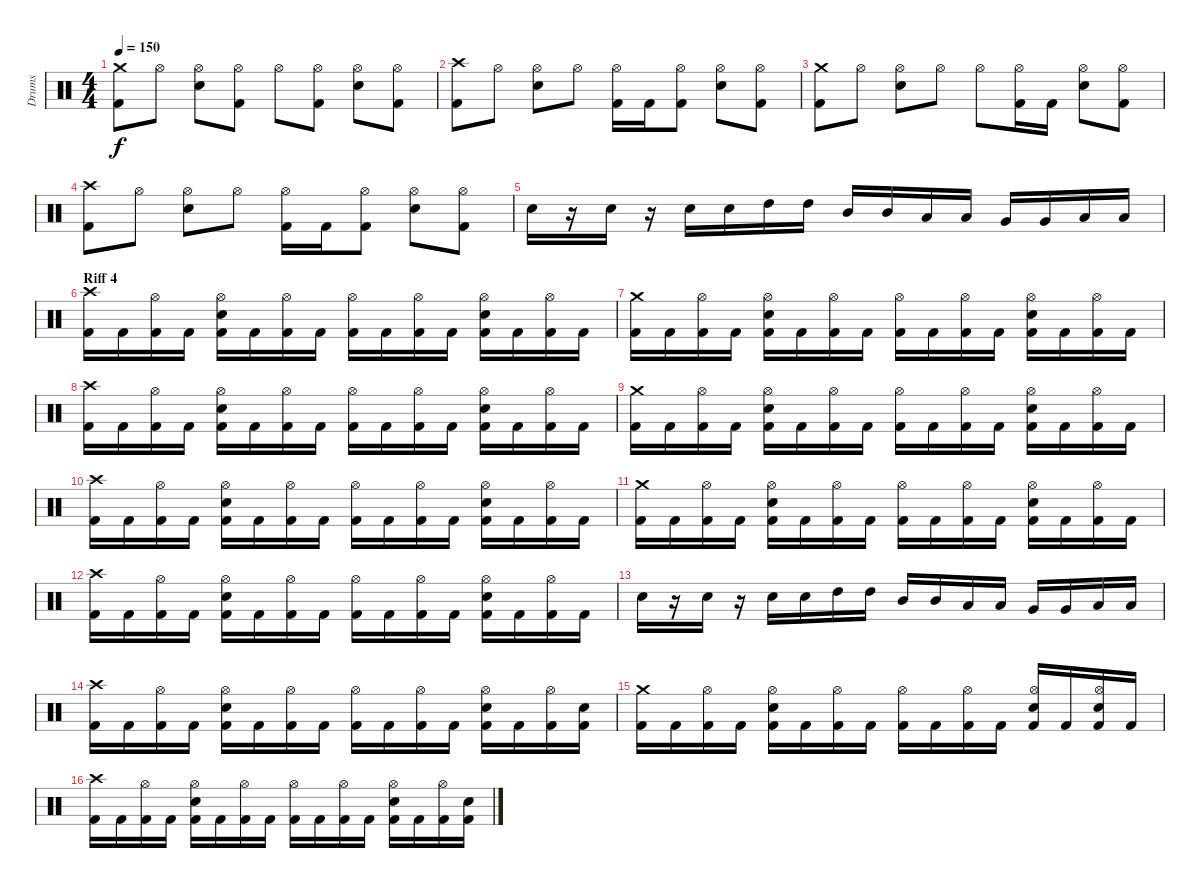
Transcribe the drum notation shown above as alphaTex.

\track ("Drums" "Drums") {instrument percussion}
\staff {score}
\articulation defaults
\ts (4 4)
\tempo 150
\clef neutral
\ks c
("Crash medium (hit)" "Kick (hit) 2").8{dy f} "Hi-Hat (open)".8 ("Hi-Hat (open)" "Electric Snare (hit)").8 ("Hi-Hat (open)" "Kick (hit) 2").8 "Hi-Hat (open)".8 ("Hi-Hat (open)" "Kick (hit) 2").8 ("Hi-Hat (open)" "Electric Snare (hit)").8 ("Hi-Hat (open)" "Kick (hit) 2").8 |
("Crash high (hit)" "Kick (hit) 2").8 "Hi-Hat (open)".8 ("Hi-Hat (open)" "Electric Snare (hit)").8 "Hi-Hat (open)".8 ("Hi-Hat (open)" "Kick (hit) 2").16 "Kick (hit) 2".16 ("Hi-Hat (open)" "Kick (hit) 2").8 ("Hi-Hat (open)" "Electric Snare (hit)").8 ("Hi-Hat (open)" "Kick (hit) 2").8 |
("Crash medium (hit)" "Kick (hit) 2").8 "Hi-Hat (open)".8 ("Hi-Hat (open)" "Electric Snare (hit)").8 "Hi-Hat (open)".8 "Hi-Hat (open)".8 ("Hi-Hat (open)" "Kick (hit) 2").16 "Kick (hit) 2".16 ("Hi-Hat (open)" "Electric Snare (hit)").8 ("Hi-Hat (open)" "Kick (hit) 2").8 |
("Crash high (hit)" "Kick (hit) 2").8 "Hi-Hat (open)".8 ("Hi-Hat (open)" "Electric Snare (hit)").8 "Hi-Hat (open)".8 ("Hi-Hat (open)" "Kick (hit) 2").16 "Kick (hit) 2".16 ("Hi-Hat (open)" "Kick (hit) 2").8 ("Hi-Hat (open)" "Electric Snare (hit)").8 ("Hi-Hat (open)" "Kick (hit) 2").8 |
"Electric Snare (hit)".16 r.16 "Electric Snare (hit)".16 r.16 "Electric Snare (hit)".16 "Electric Snare (hit)".16 "High Tom (hit)".16 "High Tom (hit)".16 "Mid Tom (hit)".16 "Mid Tom (hit)".16 "Low Tom (hit)".16 "Low Tom (hit)".16 "Very Low Tom (hit)".16 "Very Low Tom (hit)".16 "Low Floor Tom (hit)".16 "Low Floor Tom (hit)".16 |
\section ("" "Riff 4")
("Crash high (hit)" "Kick (hit) 2").16 "Kick (hit) 2".16 ("Hi-Hat (open)" "Kick (hit) 2").16 "Kick (hit) 2".16 ("Hi-Hat (open)" "Electric Snare (hit)" "Kick (hit) 2").16 "Kick (hit) 2".16 ("Hi-Hat (open)" "Kick (hit) 2").16 "Kick (hit) 2".16 ("Hi-Hat (open)" "Kick (hit) 2").16 "Kick (hit) 2".16 ("Hi-Hat (open)" "Kick (hit) 2").16 "Kick (hit) 2".16 ("Hi-Hat (open)" "Electric Snare (hit)" "Kick (hit) 2").16 "Kick (hit) 2".16 ("Hi-Hat (open)" "Kick (hit) 2").16 "Kick (hit) 2".16 |
("Crash medium (hit)" "Kick (hit) 2").16 "Kick (hit) 2".16 ("Hi-Hat (open)" "Kick (hit) 2").16 "Kick (hit) 2".16 ("Hi-Hat (open)" "Electric Snare (hit)" "Kick (hit) 2").16 "Kick (hit) 2".16 ("Hi-Hat (open)" "Kick (hit) 2").16 "Kick (hit) 2".16 ("Hi-Hat (open)" "Kick (hit) 2").16 "Kick (hit) 2".16 ("Hi-Hat (open)" "Kick (hit) 2").16 "Kick (hit) 2".16 ("Hi-Hat (open)" "Electric Snare (hit)" "Kick (hit) 2").16 "Kick (hit) 2".16 ("Hi-Hat (open)" "Kick (hit) 2").16 "Kick (hit) 2".16 |
("Crash high (hit)" "Kick (hit) 2").16 "Kick (hit) 2".16 ("Hi-Hat (open)" "Kick (hit) 2").16 "Kick (hit) 2".16 ("Hi-Hat (open)" "Electric Snare (hit)" "Kick (hit) 2").16 "Kick (hit) 2".16 ("Hi-Hat (open)" "Kick (hit) 2").16 "Kick (hit) 2".16 ("Hi-Hat (open)" "Kick (hit) 2").16 "Kick (hit) 2".16 ("Hi-Hat (open)" "Kick (hit) 2").16 "Kick (hit) 2".16 ("Hi-Hat (open)" "Electric Snare (hit)" "Kick (hit) 2").16 "Kick (hit) 2".16 ("Hi-Hat (open)" "Kick (hit) 2").16 "Kick (hit) 2".16 |
("Crash medium (hit)" "Kick (hit) 2").16 "Kick (hit) 2".16 ("Hi-Hat (open)" "Kick (hit) 2").16 "Kick (hit) 2".16 ("Hi-Hat (open)" "Electric Snare (hit)" "Kick (hit) 2").16 "Kick (hit) 2".16 ("Hi-Hat (open)" "Kick (hit) 2").16 "Kick (hit) 2".16 ("Hi-Hat (open)" "Kick (hit) 2").16 "Kick (hit) 2".16 ("Hi-Hat (open)" "Kick (hit) 2").16 "Kick (hit) 2".16 ("Hi-Hat (open)" "Electric Snare (hit)" "Kick (hit) 2").16 "Kick (hit) 2".16 ("Hi-Hat (open)" "Kick (hit) 2").16 "Kick (hit) 2".16 |
("Crash high (hit)" "Kick (hit) 2").16 "Kick (hit) 2".16 ("Hi-Hat (open)" "Kick (hit) 2").16 "Kick (hit) 2".16 ("Hi-Hat (open)" "Electric Snare (hit)" "Kick (hit) 2").16 "Kick (hit) 2".16 ("Hi-Hat (open)" "Kick (hit) 2").16 "Kick (hit) 2".16 ("Hi-Hat (open)" "Kick (hit) 2").16 "Kick (hit) 2".16 ("Hi-Hat (open)" "Kick (hit) 2").16 "Kick (hit) 2".16 ("Hi-Hat (open)" "Electric Snare (hit)" "Kick (hit) 2").16 "Kick (hit) 2".16 ("Hi-Hat (open)" "Kick (hit) 2").16 "Kick (hit) 2".16 |
("Crash medium (hit)" "Kick (hit) 2").16 "Kick (hit) 2".16 ("Hi-Hat (open)" "Kick (hit) 2").16 "Kick (hit) 2".16 ("Hi-Hat (open)" "Electric Snare (hit)" "Kick (hit) 2").16 "Kick (hit) 2".16 ("Hi-Hat (open)" "Kick (hit) 2").16 "Kick (hit) 2".16 ("Hi-Hat (open)" "Kick (hit) 2").16 "Kick (hit) 2".16 ("Hi-Hat (open)" "Kick (hit) 2").16 "Kick (hit) 2".16 ("Hi-Hat (open)" "Electric Snare (hit)" "Kick (hit) 2").16 "Kick (hit) 2".16 ("Hi-Hat (open)" "Kick (hit) 2").16 "Kick (hit) 2".16 |
("Crash high (hit)" "Kick (hit) 2").16 "Kick (hit) 2".16 ("Hi-Hat (open)" "Kick (hit) 2").16 "Kick (hit) 2".16 ("Hi-Hat (open)" "Electric Snare (hit)" "Kick (hit) 2").16 "Kick (hit) 2".16 ("Hi-Hat (open)" "Kick (hit) 2").16 "Kick (hit) 2".16 ("Hi-Hat (open)" "Kick (hit) 2").16 "Kick (hit) 2".16 ("Hi-Hat (open)" "Kick (hit) 2").16 "Kick (hit) 2".16 ("Hi-Hat (open)" "Electric Snare (hit)" "Kick (hit) 2").16 "Kick (hit) 2".16 ("Hi-Hat (open)" "Kick (hit) 2").16 "Kick (hit) 2".16 |
"Electric Snare (hit)".16 r.16 "Electric Snare (hit)".16 r.16 "Electric Snare (hit)".16 "Electric Snare (hit)".16 "High Tom (hit)".16 "High Tom (hit)".16 "Mid Tom (hit)".16 "Mid Tom (hit)".16 "Low Tom (hit)".16 "Low Tom (hit)".16 "Very Low Tom (hit)".16 "Very Low Tom (hit)".16 "Low Floor Tom (hit)".16 "Low Floor Tom (hit)".16 |
("Crash high (hit)" "Kick (hit) 2").16 "Kick (hit) 2".16 ("Hi-Hat (open)" "Kick (hit) 2").16 "Kick (hit) 2".16 ("Hi-Hat (open)" "Electric Snare (hit)" "Kick (hit) 2").16 "Kick (hit) 2".16 ("Hi-Hat (open)" "Kick (hit) 2").16 "Kick (hit) 2".16 ("Hi-Hat (open)" "Kick (hit) 2").16 "Kick (hit) 2".16 ("Hi-Hat (open)" "Kick (hit) 2").16 "Kick (hit) 2".16 ("Hi-Hat (open)" "Electric Snare (hit)" "Kick (hit) 2").16 "Kick (hit) 2".16 ("Hi-Hat (open)" "Kick (hit) 2").16 ("Electric Snare (hit)" "Kick (hit) 2").16 |
("Crash medium (hit)" "Kick (hit) 2").16 "Kick (hit) 2".16 ("Hi-Hat (open)" "Kick (hit) 2").16 "Kick (hit) 2".16 ("Hi-Hat (open)" "Electric Snare (hit)" "Kick (hit) 2").16 "Kick (hit) 2".16 ("Hi-Hat (open)" "Kick (hit) 2").16 "Kick (hit) 2".16 ("Hi-Hat (open)" "Kick (hit) 2").16 "Kick (hit) 2".16 ("Hi-Hat (open)" "Kick (hit) 2").16 "Kick (hit) 2".16 ("Hi-Hat (open)" "Electric Snare (hit)" "Kick (hit) 2").16 "Kick (hit) 2".16 ("Hi-Hat (open)" "Electric Snare (hit)" "Kick (hit) 2").16 "Kick (hit) 2".16 |
("Crash high (hit)" "Kick (hit) 2").16 "Kick (hit) 2".16 ("Hi-Hat (open)" "Kick (hit) 2").16 "Kick (hit) 2".16 ("Hi-Hat (open)" "Electric Snare (hit)" "Kick (hit) 2").16 "Kick (hit) 2".16 ("Hi-Hat (open)" "Kick (hit) 2").16 "Kick (hit) 2".16 ("Hi-Hat (open)" "Kick (hit) 2").16 "Kick (hit) 2".16 ("Hi-Hat (open)" "Kick (hit) 2").16 "Kick (hit) 2".16 ("Hi-Hat (open)" "Electric Snare (hit)" "Kick (hit) 2").16 "Kick (hit) 2".16 ("Hi-Hat (open)" "Kick (hit) 2").16 ("Electric Snare (hit)" "Kick (hit) 2").16
